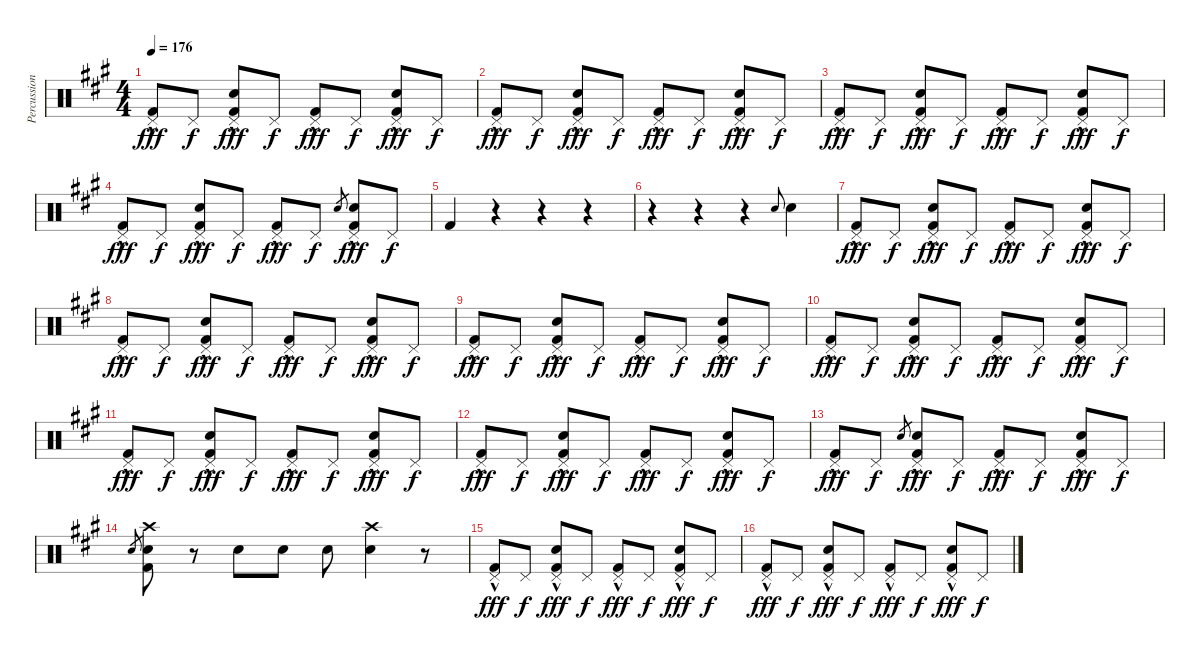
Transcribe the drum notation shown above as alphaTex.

\track ("Percussion" "Percussion") {instrument percussion}
\staff {score}
\articulation defaults
\ts (4 4)
\tempo 176
\clef neutral
\ks a
("Pedal Hi-Hat (hit)"{hac} "Kick (hit) 2").8{dy fff} "Pedal Hi-Hat (hit)".8{dy f} ("Pedal Hi-Hat (hit)"{hac} "Snare (hit) 2" "Kick (hit) 2").8{dy fff} "Pedal Hi-Hat (hit)".8{dy f} ("Pedal Hi-Hat (hit)"{hac} "Kick (hit) 2").8{dy fff} "Pedal Hi-Hat (hit)".8{dy f} ("Pedal Hi-Hat (hit)"{hac} "Snare (hit) 2" "Kick (hit) 2").8{dy fff} "Pedal Hi-Hat (hit)".8{dy f} |
("Pedal Hi-Hat (hit)"{hac} "Kick (hit) 2").8{dy fff} "Pedal Hi-Hat (hit)".8{dy f} ("Pedal Hi-Hat (hit)"{hac} "Snare (hit) 2" "Kick (hit) 2").8{dy fff} "Pedal Hi-Hat (hit)".8{dy f} ("Pedal Hi-Hat (hit)"{hac} "Kick (hit) 2").8{dy fff} "Pedal Hi-Hat (hit)".8{dy f} ("Pedal Hi-Hat (hit)"{hac} "Snare (hit) 2" "Kick (hit) 2").8{dy fff} "Pedal Hi-Hat (hit)".8{dy f} |
("Pedal Hi-Hat (hit)"{hac} "Kick (hit) 2").8{dy fff} "Pedal Hi-Hat (hit)".8{dy f} ("Pedal Hi-Hat (hit)"{hac} "Snare (hit) 2" "Kick (hit) 2").8{dy fff} "Pedal Hi-Hat (hit)".8{dy f} ("Pedal Hi-Hat (hit)"{hac} "Kick (hit) 2").8{dy fff} "Pedal Hi-Hat (hit)".8{dy f} ("Pedal Hi-Hat (hit)"{hac} "Snare (hit) 2" "Kick (hit) 2").8{dy fff} "Pedal Hi-Hat (hit)".8{dy f} |
("Pedal Hi-Hat (hit)"{hac} "Kick (hit) 2").8{dy fff} "Pedal Hi-Hat (hit)".8{dy f} ("Pedal Hi-Hat (hit)"{hac} "Snare (hit) 2" "Kick (hit) 2").8{dy fff} "Pedal Hi-Hat (hit)".8{dy f} ("Pedal Hi-Hat (hit)"{hac} "Kick (hit) 2").8{dy fff} "Pedal Hi-Hat (hit)".8{dy f} "Snare (hit) 2".8{gr} ("Pedal Hi-Hat (hit)"{hac} "Snare (hit) 2" "Kick (hit) 2").8{dy fff} "Pedal Hi-Hat (hit)".8{dy f} |
"Kick (hit) 2".4 r.4 r.4 r.4 |
r.4 r.4 r.4 "Snare (hit) 2".8{gr onbeat} "Snare (hit) 2".4 |
("Pedal Hi-Hat (hit)"{hac} "Kick (hit) 2").8{dy fff} "Pedal Hi-Hat (hit)".8{dy f} ("Pedal Hi-Hat (hit)"{hac} "Snare (hit) 2" "Kick (hit) 2").8{dy fff} "Pedal Hi-Hat (hit)".8{dy f} ("Pedal Hi-Hat (hit)"{hac} "Kick (hit) 2").8{dy fff} "Pedal Hi-Hat (hit)".8{dy f} ("Pedal Hi-Hat (hit)"{hac} "Snare (hit) 2" "Kick (hit) 2").8{dy fff} "Pedal Hi-Hat (hit)".8{dy f} |
("Pedal Hi-Hat (hit)"{hac} "Kick (hit) 2").8{dy fff} "Pedal Hi-Hat (hit)".8{dy f} ("Pedal Hi-Hat (hit)"{hac} "Snare (hit) 2" "Kick (hit) 2").8{dy fff} "Pedal Hi-Hat (hit)".8{dy f} ("Pedal Hi-Hat (hit)"{hac} "Kick (hit) 2").8{dy fff} "Pedal Hi-Hat (hit)".8{dy f} ("Pedal Hi-Hat (hit)"{hac} "Snare (hit) 2" "Kick (hit) 2").8{dy fff} "Pedal Hi-Hat (hit)".8{dy f} |
("Pedal Hi-Hat (hit)"{hac} "Kick (hit) 2").8{dy fff} "Pedal Hi-Hat (hit)".8{dy f} ("Pedal Hi-Hat (hit)"{hac} "Snare (hit) 2" "Kick (hit) 2").8{dy fff} "Pedal Hi-Hat (hit)".8{dy f} ("Pedal Hi-Hat (hit)"{hac} "Kick (hit) 2").8{dy fff} "Pedal Hi-Hat (hit)".8{dy f} ("Pedal Hi-Hat (hit)"{hac} "Snare (hit) 2" "Kick (hit) 2").8{dy fff} "Pedal Hi-Hat (hit)".8{dy f} |
("Pedal Hi-Hat (hit)"{hac} "Kick (hit) 2").8{dy fff} "Pedal Hi-Hat (hit)".8{dy f} ("Pedal Hi-Hat (hit)"{hac} "Snare (hit) 2" "Kick (hit) 2").8{dy fff} "Pedal Hi-Hat (hit)".8{dy f} ("Pedal Hi-Hat (hit)"{hac} "Kick (hit) 2").8{dy fff} "Pedal Hi-Hat (hit)".8{dy f} ("Pedal Hi-Hat (hit)"{hac} "Snare (hit) 2" "Kick (hit) 2").8{dy fff} "Pedal Hi-Hat (hit)".8{dy f} |
("Pedal Hi-Hat (hit)"{hac} "Kick (hit) 2").8{dy fff} "Pedal Hi-Hat (hit)".8{dy f} ("Pedal Hi-Hat (hit)"{hac} "Snare (hit) 2" "Kick (hit) 2").8{dy fff} "Pedal Hi-Hat (hit)".8{dy f} ("Pedal Hi-Hat (hit)"{hac} "Kick (hit) 2").8{dy fff} "Pedal Hi-Hat (hit)".8{dy f} ("Pedal Hi-Hat (hit)"{hac} "Snare (hit) 2" "Kick (hit) 2").8{dy fff} "Pedal Hi-Hat (hit)".8{dy f} |
("Pedal Hi-Hat (hit)"{hac} "Kick (hit) 2").8{dy fff} "Pedal Hi-Hat (hit)".8{dy f} ("Pedal Hi-Hat (hit)"{hac} "Snare (hit) 2" "Kick (hit) 2").8{dy fff} "Pedal Hi-Hat (hit)".8{dy f} ("Pedal Hi-Hat (hit)"{hac} "Kick (hit) 2").8{dy fff} "Pedal Hi-Hat (hit)".8{dy f} ("Pedal Hi-Hat (hit)"{hac} "Snare (hit) 2" "Kick (hit) 2").8{dy fff} "Pedal Hi-Hat (hit)".8{dy f} |
("Pedal Hi-Hat (hit)"{hac} "Kick (hit) 2").8{dy fff} "Pedal Hi-Hat (hit)".8{dy f} "Snare (hit) 2".8{gr} ("Pedal Hi-Hat (hit)"{hac} "Snare (hit) 2" "Kick (hit) 2").8{dy fff} "Pedal Hi-Hat (hit)".8{dy f} ("Pedal Hi-Hat (hit)"{hac} "Kick (hit) 2").8{dy fff} "Pedal Hi-Hat (hit)".8{dy f} ("Pedal Hi-Hat (hit)"{hac} "Snare (hit) 2" "Kick (hit) 2").8{dy fff} "Pedal Hi-Hat (hit)".8{dy f} |
"Snare (hit) 2".8{gr} ("Crash high (hit)" "Snare (hit) 2" "Kick (hit) 2").8 r.8 "Snare (hit) 2".8 "Snare (hit) 2".8 "Snare (hit) 2".8 ("Crash high (hit)" "Snare (hit) 2").4 r.8 |
("Pedal Hi-Hat (hit)"{hac} "Kick (hit) 2").8{dy fff} "Pedal Hi-Hat (hit)".8{dy f} ("Pedal Hi-Hat (hit)"{hac} "Snare (hit) 2" "Kick (hit) 2").8{dy fff} "Pedal Hi-Hat (hit)".8{dy f} ("Pedal Hi-Hat (hit)"{hac} "Kick (hit) 2").8{dy fff} "Pedal Hi-Hat (hit)".8{dy f} ("Pedal Hi-Hat (hit)"{hac} "Snare (hit) 2" "Kick (hit) 2").8{dy fff} "Pedal Hi-Hat (hit)".8{dy f} |
("Pedal Hi-Hat (hit)"{hac} "Kick (hit) 2").8{dy fff} "Pedal Hi-Hat (hit)".8{dy f} ("Pedal Hi-Hat (hit)"{hac} "Snare (hit) 2" "Kick (hit) 2").8{dy fff} "Pedal Hi-Hat (hit)".8{dy f} ("Pedal Hi-Hat (hit)"{hac} "Kick (hit) 2").8{dy fff} "Pedal Hi-Hat (hit)".8{dy f} ("Pedal Hi-Hat (hit)"{hac} "Snare (hit) 2" "Kick (hit) 2").8{dy fff} "Pedal Hi-Hat (hit)".8{dy f}
